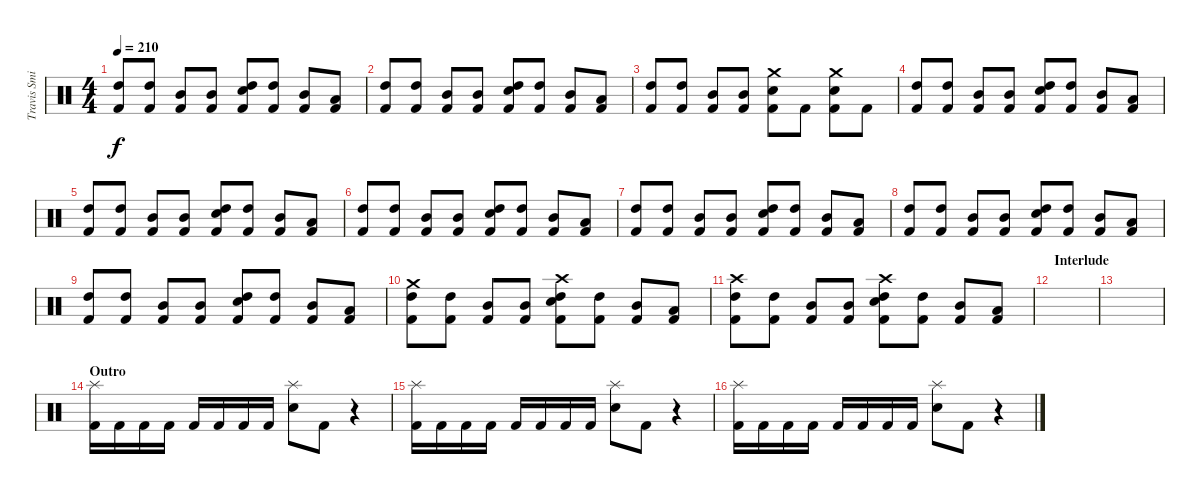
\track ("Travis Smith" "Travis Smi") {instrument percussion}
\staff {score}
\articulation defaults
\ts (4 4)
\tempo 210
\clef neutral
\ks c
("High Tom (hit)" "Kick (hit) 2").8{dy f} ("High Tom (hit)" "Kick (hit) 2").8 ("Mid Tom (hit)" "Kick (hit) 2").8 ("Mid Tom (hit)" "Kick (hit) 2").8 ("High Tom (hit)" "Snare (hit) 2" "Kick (hit) 2").8 ("High Tom (hit)" "Kick (hit) 2").8 ("Mid Tom (hit)" "Kick (hit) 2").8 ("Low Tom (hit)" "Kick (hit) 2").8 |
("High Tom (hit)" "Kick (hit) 2").8 ("High Tom (hit)" "Kick (hit) 2").8 ("Mid Tom (hit)" "Kick (hit) 2").8 ("Mid Tom (hit)" "Kick (hit) 2").8 ("High Tom (hit)" "Snare (hit) 2" "Kick (hit) 2").8 ("High Tom (hit)" "Kick (hit) 2").8 ("Mid Tom (hit)" "Kick (hit) 2").8 ("Low Tom (hit)" "Kick (hit) 2").8 |
("High Tom (hit)" "Kick (hit) 2").8 ("High Tom (hit)" "Kick (hit) 2").8 ("Mid Tom (hit)" "Kick (hit) 2").8 ("Mid Tom (hit)" "Kick (hit) 2").8 ("Crash medium (hit)" "Snare (hit) 2" "Kick (hit) 2").8 "Kick (hit) 2".8 ("Crash medium (hit)" "Snare (hit) 2" "Kick (hit) 2").8 "Kick (hit) 2".8 |
("High Tom (hit)" "Kick (hit) 2").8 ("High Tom (hit)" "Kick (hit) 2").8 ("Mid Tom (hit)" "Kick (hit) 2").8 ("Mid Tom (hit)" "Kick (hit) 2").8 ("High Tom (hit)" "Snare (hit) 2" "Kick (hit) 2").8 ("High Tom (hit)" "Kick (hit) 2").8 ("Mid Tom (hit)" "Kick (hit) 2").8 ("Low Tom (hit)" "Kick (hit) 2").8 |
("High Tom (hit)" "Kick (hit) 2").8 ("High Tom (hit)" "Kick (hit) 2").8 ("Mid Tom (hit)" "Kick (hit) 2").8 ("Mid Tom (hit)" "Kick (hit) 2").8 ("High Tom (hit)" "Snare (hit) 2" "Kick (hit) 2").8 ("High Tom (hit)" "Kick (hit) 2").8 ("Mid Tom (hit)" "Kick (hit) 2").8 ("Low Tom (hit)" "Kick (hit) 2").8 |
("High Tom (hit)" "Kick (hit) 2").8 ("High Tom (hit)" "Kick (hit) 2").8 ("Mid Tom (hit)" "Kick (hit) 2").8 ("Mid Tom (hit)" "Kick (hit) 2").8 ("High Tom (hit)" "Snare (hit) 2" "Kick (hit) 2").8 ("High Tom (hit)" "Kick (hit) 2").8 ("Mid Tom (hit)" "Kick (hit) 2").8 ("Low Tom (hit)" "Kick (hit) 2").8 |
("High Tom (hit)" "Kick (hit) 2").8 ("High Tom (hit)" "Kick (hit) 2").8 ("Mid Tom (hit)" "Kick (hit) 2").8 ("Mid Tom (hit)" "Kick (hit) 2").8 ("High Tom (hit)" "Snare (hit) 2" "Kick (hit) 2").8 ("High Tom (hit)" "Kick (hit) 2").8 ("Mid Tom (hit)" "Kick (hit) 2").8 ("Low Tom (hit)" "Kick (hit) 2").8 |
("High Tom (hit)" "Kick (hit) 2").8 ("High Tom (hit)" "Kick (hit) 2").8 ("Mid Tom (hit)" "Kick (hit) 2").8 ("Mid Tom (hit)" "Kick (hit) 2").8 ("High Tom (hit)" "Snare (hit) 2" "Kick (hit) 2").8 ("High Tom (hit)" "Kick (hit) 2").8 ("Mid Tom (hit)" "Kick (hit) 2").8 ("Low Tom (hit)" "Kick (hit) 2").8 |
("High Tom (hit)" "Kick (hit) 2").8 ("High Tom (hit)" "Kick (hit) 2").8 ("Mid Tom (hit)" "Kick (hit) 2").8 ("Mid Tom (hit)" "Kick (hit) 2").8 ("High Tom (hit)" "Snare (hit) 2" "Kick (hit) 2").8 ("High Tom (hit)" "Kick (hit) 2").8 ("Mid Tom (hit)" "Kick (hit) 2").8 ("Low Tom (hit)" "Kick (hit) 2").8 |
("Crash medium (hit)" "High Tom (hit)" "Kick (hit) 2").8 ("High Tom (hit)" "Kick (hit) 2").8 ("Mid Tom (hit)" "Kick (hit) 2").8 ("Mid Tom (hit)" "Kick (hit) 2").8 ("Crash high (hit)" "High Tom (hit)" "Snare (hit) 2" "Kick (hit) 2").8 ("High Tom (hit)" "Kick (hit) 2").8 ("Mid Tom (hit)" "Kick (hit) 2").8 ("Low Tom (hit)" "Kick (hit) 2").8 |
("Crash high (hit)" "High Tom (hit)" "Kick (hit) 2").8 ("High Tom (hit)" "Kick (hit) 2").8 ("Mid Tom (hit)" "Kick (hit) 2").8 ("Mid Tom (hit)" "Kick (hit) 2").8 ("Crash high (hit)" "High Tom (hit)" "Snare (hit) 2" "Kick (hit) 2").8 ("High Tom (hit)" "Kick (hit) 2").8 ("Mid Tom (hit)" "Kick (hit) 2").8 ("Low Tom (hit)" "Kick (hit) 2").8 |
\section ("" "Interlude")
|
|
\section ("" "Outro")
("Splash (hit)" "Kick (hit) 2").16 "Kick (hit) 2".16 "Kick (hit) 2".16 "Kick (hit) 2".16 "Kick (hit) 2".16 "Kick (hit) 2".16 "Kick (hit) 2".16 "Kick (hit) 2".16 ("Splash (hit)" "Snare (hit) 2").8 "Kick (hit) 2".8 r.4 |
("Splash (hit)" "Kick (hit) 2").16 "Kick (hit) 2".16 "Kick (hit) 2".16 "Kick (hit) 2".16 "Kick (hit) 2".16 "Kick (hit) 2".16 "Kick (hit) 2".16 "Kick (hit) 2".16 ("Splash (hit)" "Snare (hit) 2").8 "Kick (hit) 2".8 r.4 |
("Splash (hit)" "Kick (hit) 2").16 "Kick (hit) 2".16 "Kick (hit) 2".16 "Kick (hit) 2".16 "Kick (hit) 2".16 "Kick (hit) 2".16 "Kick (hit) 2".16 "Kick (hit) 2".16 ("Splash (hit)" "Snare (hit) 2").8 "Kick (hit) 2".8 r.4
